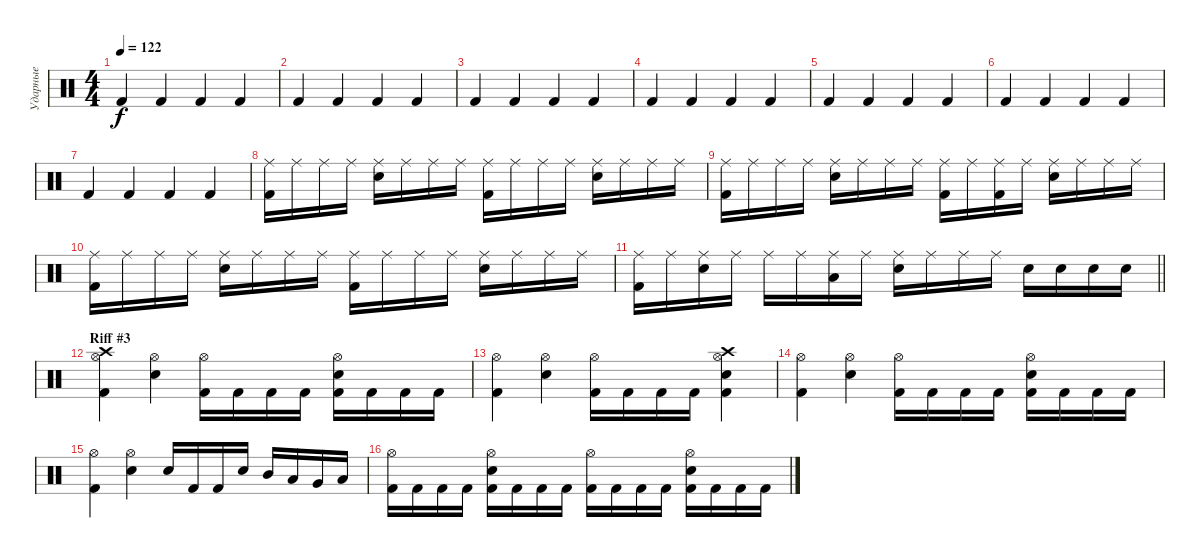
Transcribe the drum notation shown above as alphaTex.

\track ("Ударные" "Ударные") {instrument percussion}
\staff {score}
\articulation defaults
\ts (4 4)
\tempo 122
\clef neutral
\ks c "Kick (hit) 2".4{dy f} "Kick (hit) 2".4 "Kick (hit) 2".4 "Kick (hit) 2".4
|
"Kick (hit) 2".4 "Kick (hit) 2".4 "Kick (hit) 2".4 "Kick (hit) 2".4 |
"Kick (hit) 2".4 "Kick (hit) 2".4 "Kick (hit) 2".4 "Kick (hit) 2".4 |
"Kick (hit) 2".4 "Kick (hit) 2".4 "Kick (hit) 2".4 "Kick (hit) 2".4 |
"Kick (hit) 2".4 "Kick (hit) 2".4 "Kick (hit) 2".4 "Kick (hit) 2".4 |
"Kick (hit) 2".4 "Kick (hit) 2".4 "Kick (hit) 2".4 "Kick (hit) 2".4 |
"Kick (hit) 2".4 "Kick (hit) 2".4 "Kick (hit) 2".4 "Kick (hit) 2".4 |
("Kick (hit) 2" "Ride (middle)").16 "Ride (middle)".16 "Ride (middle)".16 "Ride (middle)".16 ("Electric Snare (hit)" "Ride (middle)").16 "Ride (middle)".16 "Ride (middle)".16 "Ride (middle)".16 ("Kick (hit) 2" "Ride (middle)").16 "Ride (middle)".16 "Ride (middle)".16 "Ride (middle)".16 ("Electric Snare (hit)" "Ride (middle)").16 "Ride (middle)".16 "Ride (middle)".16 "Ride (middle)".16 |
("Kick (hit) 2" "Ride (middle)").16 "Ride (middle)".16 "Ride (middle)".16 "Ride (middle)".16 ("Electric Snare (hit)" "Ride (middle)").16 "Ride (middle)".16 "Ride (middle)".16 "Ride (middle)".16 ("Kick (hit) 2" "Ride (middle)").16 "Ride (middle)".16 ("Kick (hit) 2" "Ride (middle)").16 "Ride (middle)".16 ("Electric Snare (hit)" "Ride (middle)").16 "Ride (middle)".16 "Ride (middle)".16 "Ride (middle)".16 |
("Kick (hit) 2" "Ride (middle)").16 "Ride (middle)".16 "Ride (middle)".16 "Ride (middle)".16 ("Electric Snare (hit)" "Ride (middle)").16 "Ride (middle)".16 "Ride (middle)".16 "Ride (middle)".16 ("Kick (hit) 2" "Ride (middle)").16 "Ride (middle)".16 "Ride (middle)".16 "Ride (middle)".16 ("Electric Snare (hit)" "Ride (middle)").16 "Ride (middle)".16 "Ride (middle)".16 "Ride (middle)".16 |
\barLineRight lightlight
("Kick (hit) 2" "Ride (middle)").16 "Ride (middle)".16 ("Electric Snare (hit)" "Ride (middle)").16 "Ride (middle)".16 "Ride (middle)".16 "Ride (middle)".16 ("Low Tom (hit)" "Ride (middle)").16 "Ride (middle)".16 ("Electric Snare (hit)" "Ride (middle)").16 "Ride (middle)".16 "Ride (middle)".16 "Ride (middle)".16 "Electric Snare (hit)".16 "Electric Snare (hit)".16 "Electric Snare (hit)".16 "Electric Snare (hit)".16 |
\section ("" "Riff #3")
("Kick (hit) 2" "Hi-Hat (open)" "Crash high (hit)").4 ("Electric Snare (hit)" "Hi-Hat (open)").4 ("Kick (hit) 2" "Hi-Hat (open)").16 "Kick (hit) 2".16 "Kick (hit) 2".16 "Kick (hit) 2".16 ("Kick (hit) 2" "Electric Snare (hit)" "Hi-Hat (open)").16 "Kick (hit) 2".16 "Kick (hit) 2".16 "Kick (hit) 2".16 |
("Kick (hit) 2" "Hi-Hat (open)").4 ("Electric Snare (hit)" "Hi-Hat (open)").4 ("Kick (hit) 2" "Hi-Hat (open)").16 "Kick (hit) 2".16 "Kick (hit) 2".16 "Kick (hit) 2".16 ("Kick (hit) 2" "Electric Snare (hit)" "Hi-Hat (open)" "Crash high (hit)").4 |
("Kick (hit) 2" "Hi-Hat (open)").4 ("Electric Snare (hit)" "Hi-Hat (open)").4 ("Kick (hit) 2" "Hi-Hat (open)").16 "Kick (hit) 2".16 "Kick (hit) 2".16 "Kick (hit) 2".16 ("Kick (hit) 2" "Electric Snare (hit)" "Hi-Hat (open)").16 "Kick (hit) 2".16 "Kick (hit) 2".16 "Kick (hit) 2".16 |
("Kick (hit) 2" "Hi-Hat (open)").4 ("Electric Snare (hit)" "Hi-Hat (open)").4 "Electric Snare (hit)".16 "Kick (hit) 2".16 "Kick (hit) 2".16 "Electric Snare (hit)".16 "Mid Tom (hit)".16 "Low Tom (hit)".16 "Very Low Tom (hit)".16 "Low Floor Tom (hit)".16 |
("Kick (hit) 2" "Hi-Hat (open)").16 "Kick (hit) 2".16 "Kick (hit) 2".16 "Kick (hit) 2".16 ("Kick (hit) 2" "Electric Snare (hit)" "Hi-Hat (open)").16 "Kick (hit) 2".16 "Kick (hit) 2".16 "Kick (hit) 2".16 ("Kick (hit) 2" "Hi-Hat (open)").16 "Kick (hit) 2".16 "Kick (hit) 2".16 "Kick (hit) 2".16 ("Kick (hit) 2" "Electric Snare (hit)" "Hi-Hat (open)").16 "Kick (hit) 2".16 "Kick (hit) 2".16 "Kick (hit) 2".16
